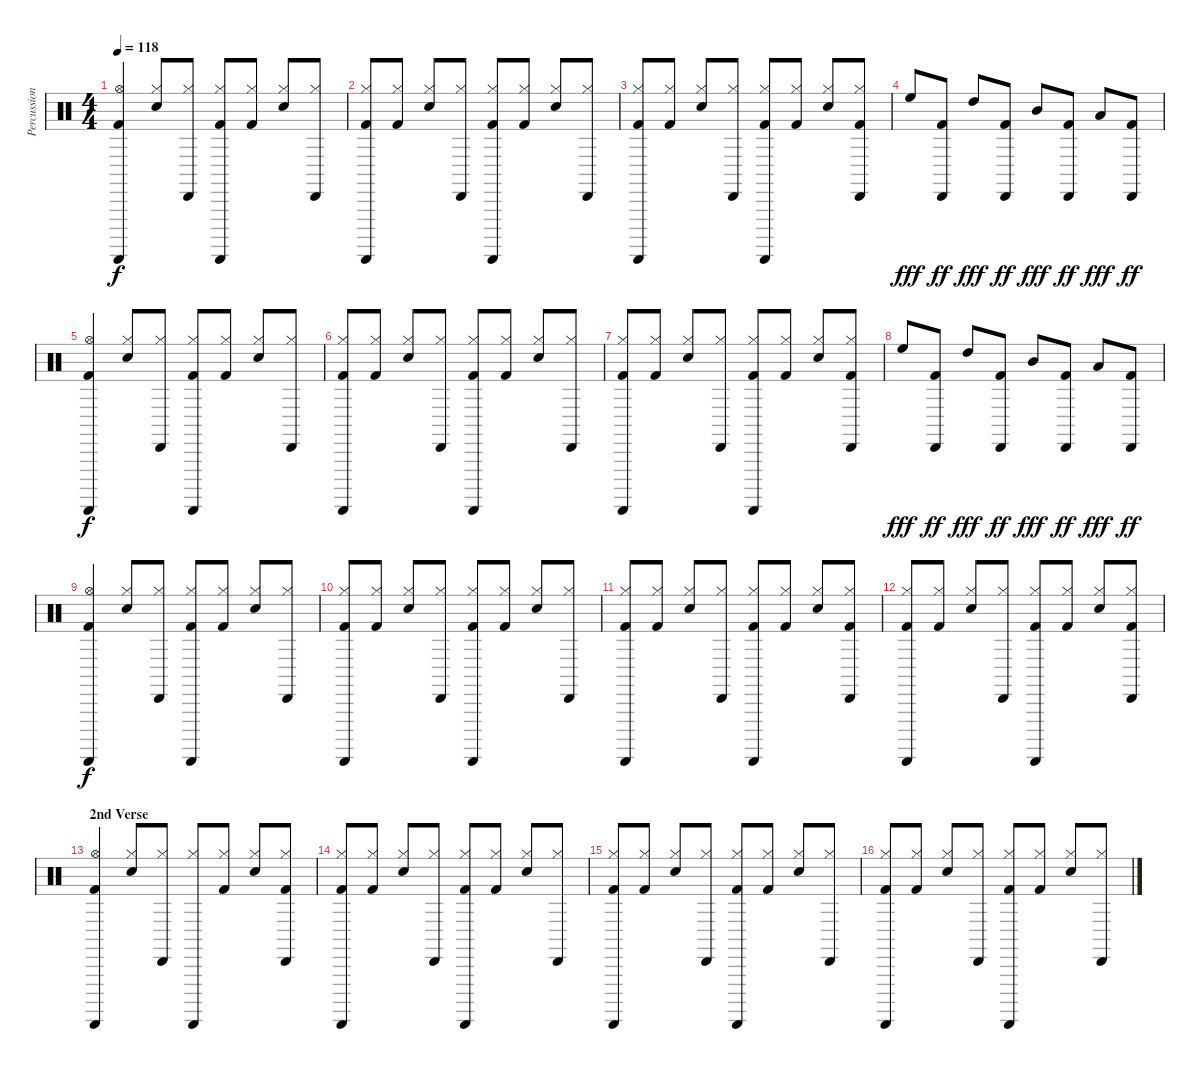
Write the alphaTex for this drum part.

\track ("Percussions" "Percussion") {instrument percussion}
\staff {score}
\articulation defaults
\ts (4 4)
\tempo 118
\clef neutral
\ks c
("Guiro (scrap-return)" "Hi-Hat (open)" "Kick (hit) 2").4{dy f} ("Hi-Hat (closed)" "Snare (hit) 2").8 ("Cabasa (hit)" "Hi-Hat (closed)").8 ("Guiro (scrap-return)" "Hi-Hat (closed)" "Kick (hit) 2").8 ("Hi-Hat (closed)" "Kick (hit) 2").8 ("Hi-Hat (closed)" "Snare (hit) 2").8 ("Cabasa (hit)" "Hi-Hat (closed)").8 |
("Guiro (scrap-return)" "Hi-Hat (closed)" "Kick (hit) 2").8 ("Hi-Hat (closed)" "Kick (hit) 2").8 ("Hi-Hat (closed)" "Snare (hit) 2").8 ("Cabasa (hit)" "Hi-Hat (closed)").8 ("Guiro (scrap-return)" "Hi-Hat (closed)" "Kick (hit) 2").8 ("Hi-Hat (closed)" "Kick (hit) 2").8 ("Hi-Hat (closed)" "Snare (hit) 2").8 ("Cabasa (hit)" "Hi-Hat (closed)").8 |
("Guiro (scrap-return)" "Hi-Hat (closed)" "Kick (hit) 2").8 ("Hi-Hat (closed)" "Kick (hit) 2").8 ("Hi-Hat (closed)" "Snare (hit) 2").8 ("Cabasa (hit)" "Hi-Hat (closed)").8 ("Guiro (scrap-return)" "Hi-Hat (closed)" "Kick (hit) 2").8 ("Hi-Hat (closed)" "Kick (hit) 2").8 ("Hi-Hat (closed)" "Snare (hit) 2").8 ("Cabasa (hit)" "Hi-Hat (closed)" "Kick (hit) 2").8 |
"High Floor Tom (hit)".8{dy fff} ("Cabasa (hit)" "Kick (hit) 2").8{dy ff} "High Tom (hit)".8{dy fff} ("Cabasa (hit)" "Kick (hit) 2").8{dy ff} "Mid Tom (hit)".8{dy fff} ("Cabasa (hit)" "Kick (hit) 2").8{dy ff} "Low Tom (hit)".8{dy fff} ("Cabasa (hit)" "Kick (hit) 2").8{dy ff} |
("Guiro (scrap-return)" "Hi-Hat (open)" "Kick (hit) 2").4{dy f} ("Hi-Hat (closed)" "Snare (hit) 2").8 ("Cabasa (hit)" "Hi-Hat (closed)").8 ("Guiro (scrap-return)" "Hi-Hat (closed)" "Kick (hit) 2").8 ("Hi-Hat (closed)" "Kick (hit) 2").8 ("Hi-Hat (closed)" "Snare (hit) 2").8 ("Cabasa (hit)" "Hi-Hat (closed)").8 |
("Guiro (scrap-return)" "Hi-Hat (closed)" "Kick (hit) 2").8 ("Hi-Hat (closed)" "Kick (hit) 2").8 ("Hi-Hat (closed)" "Snare (hit) 2").8 ("Cabasa (hit)" "Hi-Hat (closed)").8 ("Guiro (scrap-return)" "Hi-Hat (closed)" "Kick (hit) 2").8 ("Hi-Hat (closed)" "Kick (hit) 2").8 ("Hi-Hat (closed)" "Snare (hit) 2").8 ("Cabasa (hit)" "Hi-Hat (closed)").8 |
("Guiro (scrap-return)" "Hi-Hat (closed)" "Kick (hit) 2").8 ("Hi-Hat (closed)" "Kick (hit) 2").8 ("Hi-Hat (closed)" "Snare (hit) 2").8 ("Cabasa (hit)" "Hi-Hat (closed)").8 ("Guiro (scrap-return)" "Hi-Hat (closed)" "Kick (hit) 2").8 ("Hi-Hat (closed)" "Kick (hit) 2").8 ("Hi-Hat (closed)" "Snare (hit) 2").8 ("Cabasa (hit)" "Hi-Hat (closed)" "Kick (hit) 2").8 |
"High Floor Tom (hit)".8{dy fff} ("Cabasa (hit)" "Kick (hit) 2").8{dy ff} "High Tom (hit)".8{dy fff} ("Cabasa (hit)" "Kick (hit) 2").8{dy ff} "Mid Tom (hit)".8{dy fff} ("Cabasa (hit)" "Kick (hit) 2").8{dy ff} "Low Tom (hit)".8{dy fff} ("Cabasa (hit)" "Kick (hit) 2").8{dy ff} |
("Guiro (scrap-return)" "Hi-Hat (open)" "Kick (hit) 2").4{dy f} ("Hi-Hat (closed)" "Snare (hit) 2").8 ("Cabasa (hit)" "Hi-Hat (closed)").8 ("Guiro (scrap-return)" "Hi-Hat (closed)" "Kick (hit) 2").8 ("Hi-Hat (closed)" "Kick (hit) 2").8 ("Hi-Hat (closed)" "Snare (hit) 2").8 ("Cabasa (hit)" "Hi-Hat (closed)").8 |
("Guiro (scrap-return)" "Hi-Hat (closed)" "Kick (hit) 2").8 ("Hi-Hat (closed)" "Kick (hit) 2").8 ("Hi-Hat (closed)" "Snare (hit) 2").8 ("Cabasa (hit)" "Hi-Hat (closed)").8 ("Guiro (scrap-return)" "Hi-Hat (closed)" "Kick (hit) 2").8 ("Hi-Hat (closed)" "Kick (hit) 2").8 ("Hi-Hat (closed)" "Snare (hit) 2").8 ("Cabasa (hit)" "Hi-Hat (closed)").8 |
("Guiro (scrap-return)" "Hi-Hat (closed)" "Kick (hit) 2").8 ("Hi-Hat (closed)" "Kick (hit) 2").8 ("Hi-Hat (closed)" "Snare (hit) 2").8 ("Cabasa (hit)" "Hi-Hat (closed)").8 ("Guiro (scrap-return)" "Hi-Hat (closed)" "Kick (hit) 2").8 ("Hi-Hat (closed)" "Kick (hit) 2").8 ("Hi-Hat (closed)" "Snare (hit) 2").8 ("Cabasa (hit)" "Hi-Hat (closed)" "Kick (hit) 2").8 |
("Guiro (scrap-return)" "Hi-Hat (closed)" "Kick (hit) 2").8 ("Hi-Hat (closed)" "Kick (hit) 2").8 ("Hi-Hat (closed)" "Snare (hit) 2").8 ("Cabasa (hit)" "Hi-Hat (closed)").8 ("Guiro (scrap-return)" "Hi-Hat (closed)" "Kick (hit) 2").8 ("Hi-Hat (closed)" "Kick (hit) 2").8 ("Hi-Hat (closed)" "Snare (hit) 2").8 ("Cabasa (hit)" "Hi-Hat (closed)" "Kick (hit) 2").8 |
\section ("" "2nd Verse")
("Guiro (scrap-return)" "Hi-Hat (open)" "Kick (hit) 2").4 ("Hi-Hat (closed)" "Snare (hit) 2").8 ("Cabasa (hit)" "Hi-Hat (closed)").8 ("Guiro (scrap-return)" "Hi-Hat (closed)").8 ("Hi-Hat (closed)" "Kick (hit) 2").8 ("Hi-Hat (closed)" "Snare (hit) 2").8 ("Cabasa (hit)" "Hi-Hat (closed)" "Kick (hit) 2").8 |
("Guiro (scrap-return)" "Hi-Hat (closed)" "Kick (hit) 2").8 ("Hi-Hat (closed)" "Kick (hit) 2").8 ("Hi-Hat (closed)" "Snare (hit) 2").8 ("Cabasa (hit)" "Hi-Hat (closed)").8 ("Guiro (scrap-return)" "Hi-Hat (closed)" "Kick (hit) 2").8 ("Hi-Hat (closed)" "Kick (hit) 2").8 ("Hi-Hat (closed)" "Snare (hit) 2").8 ("Cabasa (hit)" "Hi-Hat (closed)").8 |
("Guiro (scrap-return)" "Hi-Hat (closed)" "Kick (hit) 2").8 ("Hi-Hat (closed)" "Kick (hit) 2").8 ("Hi-Hat (closed)" "Snare (hit) 2").8 ("Cabasa (hit)" "Hi-Hat (closed)").8 ("Guiro (scrap-return)" "Hi-Hat (closed)" "Kick (hit) 2").8 ("Hi-Hat (closed)" "Kick (hit) 2").8 ("Hi-Hat (closed)" "Snare (hit) 2").8 ("Cabasa (hit)" "Hi-Hat (closed)").8 |
("Guiro (scrap-return)" "Hi-Hat (closed)" "Kick (hit) 2").8 ("Hi-Hat (closed)" "Kick (hit) 2").8 ("Hi-Hat (closed)" "Snare (hit) 2").8 ("Cabasa (hit)" "Hi-Hat (closed)").8 ("Guiro (scrap-return)" "Hi-Hat (closed)" "Kick (hit) 2").8 ("Hi-Hat (closed)" "Kick (hit) 2").8 ("Hi-Hat (closed)" "Snare (hit) 2").8 ("Cabasa (hit)" "Hi-Hat (closed)").8
